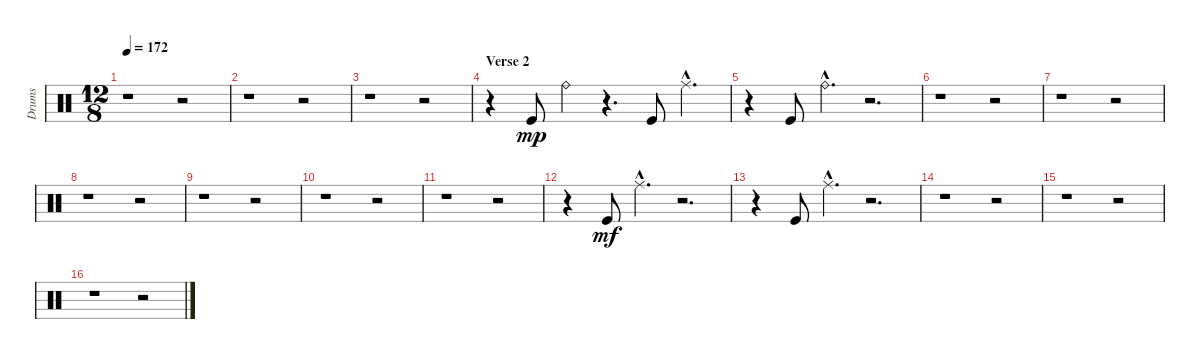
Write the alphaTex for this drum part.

\track ("Drums" "Drums") {instrument percussion}
\staff {score}
\articulation defaults
\ts (12 8)
\tempo 172
\clef neutral
\ks c
r.1{dy ff} r.2 |
r.1 r.2 |
r.1 r.2 |
\section ("" "Verse 2")
r.4 "Kick (hit)".8{dy mp balance 4} "Ride (bell)".4{balance 0} r.4{d} "Kick (hit)".8{balance 4} "Ride (middle)"{hac}.4{d balance 16} |
r.4 "Kick (hit)".8{balance 4} "Ride (bell)"{hac}.4{d balance 0} r.2{d} |
r.1 r.2 |
r.1 r.2 |
r.1 r.2 |
r.1 r.2 |
r.1 r.2 |
r.1 r.2 |
r.4 "Kick (hit)".8{dy mf balance 4} "Ride (middle)"{hac}.4{d balance 16} r.2{d} |
r.4 "Kick (hit)".8{balance 4} "Ride (middle)"{hac}.4{d balance 16} r.2{d} |
r.1 r.2 |
r.1 r.2 |
r.1 r.2
